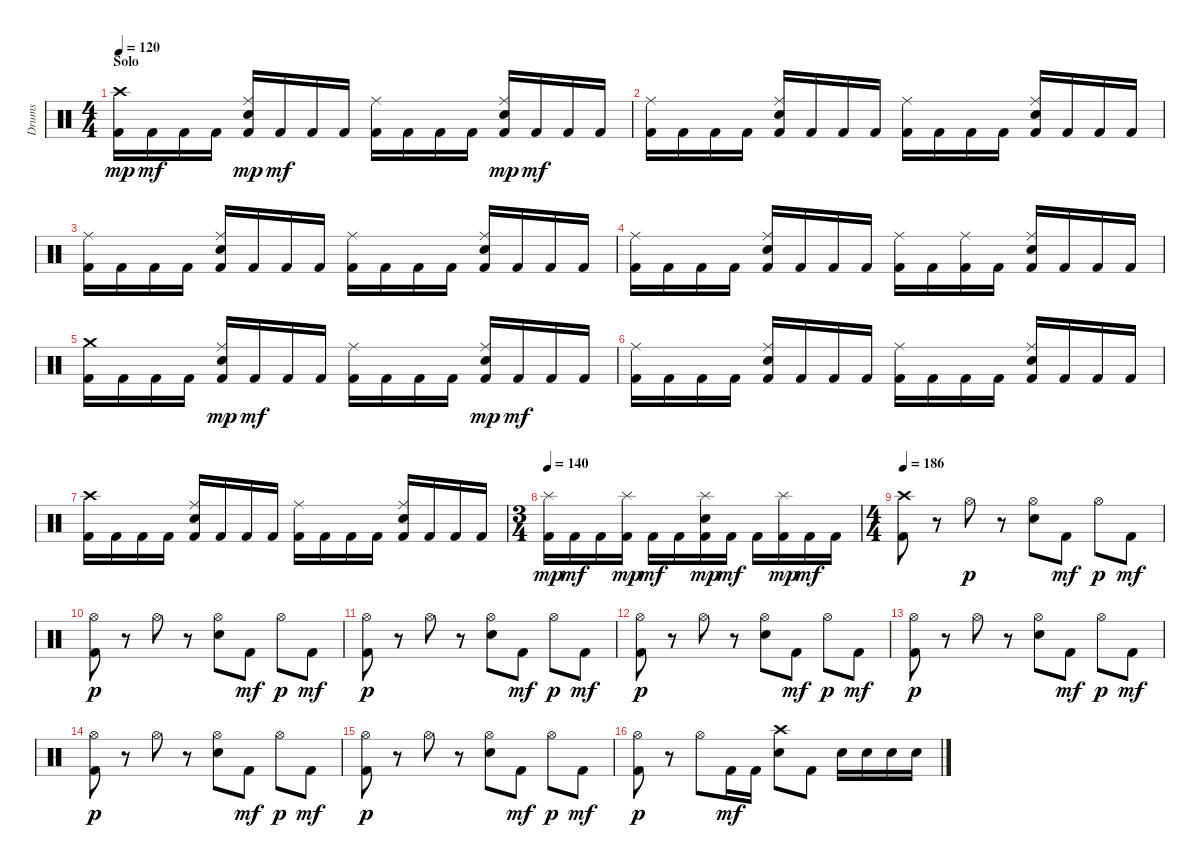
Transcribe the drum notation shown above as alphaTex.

\track ("Drums" "Drums") {instrument percussion}
\staff {score}
\articulation defaults
\ts (4 4)
\section ("" "Solo")
\tempo 120
\clef neutral
\ks c
("Kick (hit) 2" "Crash high (hit)").16{dy mp} "Kick (hit) 2".16{dy mf} "Kick (hit) 2".16 "Kick (hit) 2".16 ("Kick (hit) 2" "Ride (middle)" "Snare (hit) 2").16{dy mp} "Kick (hit) 2".16{dy mf} "Kick (hit) 2".16 "Kick (hit) 2".16 ("Kick (hit) 2" "Ride (middle)").16 "Kick (hit) 2".16 "Kick (hit) 2".16 "Kick (hit) 2".16 ("Kick (hit) 2" "Ride (middle)" "Snare (hit) 2").16{dy mp} "Kick (hit) 2".16{dy mf} "Kick (hit) 2".16 "Kick (hit) 2".16 |
("Kick (hit) 2" "Ride (middle)").16 "Kick (hit) 2".16 "Kick (hit) 2".16 "Kick (hit) 2".16 ("Kick (hit) 2" "Ride (middle)" "Snare (hit) 2").16 "Kick (hit) 2".16 "Kick (hit) 2".16 "Kick (hit) 2".16 ("Kick (hit) 2" "Ride (middle)").16 "Kick (hit) 2".16 "Kick (hit) 2".16 "Kick (hit) 2".16 ("Kick (hit) 2" "Ride (middle)" "Snare (hit) 2").16 "Kick (hit) 2".16 "Kick (hit) 2".16 "Kick (hit) 2".16 |
("Kick (hit) 2" "Ride (middle)").16 "Kick (hit) 2".16 "Kick (hit) 2".16 "Kick (hit) 2".16 ("Kick (hit) 2" "Ride (middle)" "Snare (hit) 2").16 "Kick (hit) 2".16 "Kick (hit) 2".16 "Kick (hit) 2".16 ("Kick (hit) 2" "Ride (middle)").16 "Kick (hit) 2".16 "Kick (hit) 2".16 "Kick (hit) 2".16 ("Kick (hit) 2" "Ride (middle)" "Snare (hit) 2").16 "Kick (hit) 2".16 "Kick (hit) 2".16 "Kick (hit) 2".16 |
("Kick (hit) 2" "Ride (middle)").16 "Kick (hit) 2".16 "Kick (hit) 2".16 "Kick (hit) 2".16 ("Kick (hit) 2" "Ride (middle)" "Snare (hit) 2").16 "Kick (hit) 2".16 "Kick (hit) 2".16 "Kick (hit) 2".16 ("Kick (hit) 2" "Ride (middle)").16 "Kick (hit) 2".16 ("Kick (hit) 2" "Ride (middle)").16 "Kick (hit) 2".16 ("Kick (hit) 2" "Ride (middle)" "Snare (hit) 2").16 "Kick (hit) 2".16 "Kick (hit) 2".16 "Kick (hit) 2".16 |
("Kick (hit) 2" "Crash medium (hit)").16 "Kick (hit) 2".16 "Kick (hit) 2".16 "Kick (hit) 2".16 ("Kick (hit) 2" "Ride (middle)" "Snare (hit) 2").16{dy mp} "Kick (hit) 2".16{dy mf} "Kick (hit) 2".16 "Kick (hit) 2".16 ("Kick (hit) 2" "Ride (middle)").16 "Kick (hit) 2".16 "Kick (hit) 2".16 "Kick (hit) 2".16 ("Kick (hit) 2" "Ride (middle)" "Snare (hit) 2").16{dy mp} "Kick (hit) 2".16{dy mf} "Kick (hit) 2".16 "Kick (hit) 2".16 |
("Kick (hit) 2" "Ride (middle)").16 "Kick (hit) 2".16 "Kick (hit) 2".16 "Kick (hit) 2".16 ("Kick (hit) 2" "Ride (middle)" "Snare (hit) 2").16 "Kick (hit) 2".16 "Kick (hit) 2".16 "Kick (hit) 2".16 ("Kick (hit) 2" "Ride (middle)").16 "Kick (hit) 2".16 "Kick (hit) 2".16 "Kick (hit) 2".16 ("Kick (hit) 2" "Ride (middle)" "Snare (hit) 2").16 "Kick (hit) 2".16 "Kick (hit) 2".16 "Kick (hit) 2".16 |
("Kick (hit) 2" "Crash high (hit)").16 "Kick (hit) 2".16 "Kick (hit) 2".16 "Kick (hit) 2".16 ("Kick (hit) 2" "Ride (middle)" "Snare (hit) 2").16 "Kick (hit) 2".16 "Kick (hit) 2".16 "Kick (hit) 2".16 ("Kick (hit) 2" "Ride (middle)").16 "Kick (hit) 2".16 "Kick (hit) 2".16 "Kick (hit) 2".16 ("Kick (hit) 2" "Ride (middle)" "Snare (hit) 2").16 "Kick (hit) 2".16 "Kick (hit) 2".16 "Kick (hit) 2".16 |
\ts (3 4)
\tempo 140
("Kick (hit) 2" "Splash (hit)").16{dy mp} "Kick (hit) 2".16{dy mf} "Kick (hit) 2".16 ("Kick (hit) 2" "Splash (hit)").16{dy mp} "Kick (hit) 2".16{dy mf} "Kick (hit) 2".16 ("Kick (hit) 2" "Splash (hit)" "Snare (hit) 2").16{dy mp} "Kick (hit) 2".16{dy mf} "Kick (hit) 2".16 ("Kick (hit) 2" "Splash (hit)").16{dy mp} "Kick (hit) 2".16{dy mf} "Kick (hit) 2".16 |
\ts (4 4)
\tempo 186
("Kick (hit) 2" "Crash high (hit)").8 r.8 "Hi-Hat (open)".8{dy p} r.8 ("Hi-Hat (open)" "Snare (hit) 2").8 "Kick (hit) 2".8{dy mf} "Hi-Hat (open)".8{dy p} "Kick (hit) 2".8{dy mf} |
("Kick (hit) 2" "Hi-Hat (open)").8{dy p} r.8 "Hi-Hat (open)".8 r.8 ("Hi-Hat (open)" "Snare (hit) 2").8 "Kick (hit) 2".8{dy mf} "Hi-Hat (open)".8{dy p} "Kick (hit) 2".8{dy mf} |
("Kick (hit) 2" "Hi-Hat (open)").8{dy p} r.8 "Hi-Hat (open)".8 r.8 ("Hi-Hat (open)" "Snare (hit) 2").8 "Kick (hit) 2".8{dy mf} "Hi-Hat (open)".8{dy p} "Kick (hit) 2".8{dy mf} |
("Kick (hit) 2" "Hi-Hat (open)").8{dy p} r.8 "Hi-Hat (open)".8 r.8 ("Hi-Hat (open)" "Snare (hit) 2").8 "Kick (hit) 2".8{dy mf} "Hi-Hat (open)".8{dy p} "Kick (hit) 2".8{dy mf} |
("Kick (hit) 2" "Hi-Hat (open)").8{dy p} r.8 "Hi-Hat (open)".8 r.8 ("Hi-Hat (open)" "Snare (hit) 2").8 "Kick (hit) 2".8{dy mf} "Hi-Hat (open)".8{dy p} "Kick (hit) 2".8{dy mf} |
("Kick (hit) 2" "Hi-Hat (open)").8{dy p} r.8 "Hi-Hat (open)".8 r.8 ("Hi-Hat (open)" "Snare (hit) 2").8 "Kick (hit) 2".8{dy mf} "Hi-Hat (open)".8{dy p} "Kick (hit) 2".8{dy mf} |
("Kick (hit) 2" "Hi-Hat (open)").8{dy p} r.8 "Hi-Hat (open)".8 r.8 ("Hi-Hat (open)" "Snare (hit) 2").8 "Kick (hit) 2".8{dy mf} "Hi-Hat (open)".8{dy p} "Kick (hit) 2".8{dy mf} |
("Kick (hit) 2" "Hi-Hat (open)").8{dy p} r.8 "Hi-Hat (open)".8 "Kick (hit) 2".16{dy mf} "Kick (hit) 2".16 ("Crash high (hit)" "Snare (hit) 2").8 "Kick (hit) 2".8 "Snare (hit) 2".16 "Snare (hit) 2".16 "Snare (hit) 2".16 "Snare (hit) 2".16
